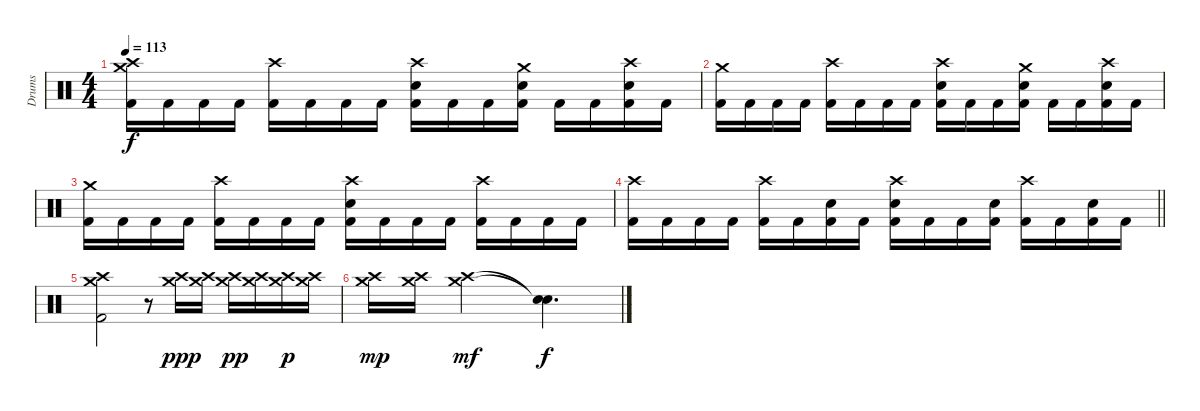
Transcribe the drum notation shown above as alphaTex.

\track ("Drums" "Drums") {instrument percussion}
\staff {score}
\articulation defaults
\ts (4 4)
\tempo 113
\clef neutral
\ks c
("Crash medium (hit)" "Crash high (hit)" "Kick (hit) 2").16{dy f} "Kick (hit) 2".16 "Kick (hit) 2".16 "Kick (hit) 2".16 ("Crash high (hit)" "Kick (hit) 2").16 "Kick (hit) 2".16 "Kick (hit) 2".16 "Kick (hit) 2".16 ("Crash high (hit)" "Electric Snare (hit)" "Kick (hit) 2").16 "Kick (hit) 2".16 "Kick (hit) 2".16 ("Crash medium (hit)" "Electric Snare (hit)" "Kick (hit) 2").16 "Kick (hit) 2".16 "Kick (hit) 2".16 ("Crash high (hit)" "Electric Snare (hit)" "Kick (hit) 2").16 "Kick (hit) 2".16 |
("Crash medium (hit)" "Kick (hit) 2").16 "Kick (hit) 2".16 "Kick (hit) 2".16 "Kick (hit) 2".16 ("Crash high (hit)" "Kick (hit) 2").16 "Kick (hit) 2".16 "Kick (hit) 2".16 "Kick (hit) 2".16 ("Crash high (hit)" "Electric Snare (hit)" "Kick (hit) 2").16 "Kick (hit) 2".16 "Kick (hit) 2".16 ("Crash medium (hit)" "Electric Snare (hit)" "Kick (hit) 2").16 "Kick (hit) 2".16 "Kick (hit) 2".16 ("Crash high (hit)" "Electric Snare (hit)" "Kick (hit) 2").16 "Kick (hit) 2".16 |
("Crash medium (hit)" "Kick (hit) 2").16 "Kick (hit) 2".16 "Kick (hit) 2".16 "Kick (hit) 2".16 ("Crash high (hit)" "Kick (hit) 2").16 "Kick (hit) 2".16 "Kick (hit) 2".16 "Kick (hit) 2".16 ("Crash high (hit)" "Electric Snare (hit)" "Kick (hit) 2").16 "Kick (hit) 2".16 "Kick (hit) 2".16 "Kick (hit) 2".16 ("Crash high (hit)" "Kick (hit) 2").16 "Kick (hit) 2".16 "Kick (hit) 2".16 "Kick (hit) 2".16 |
\barLineRight lightlight
("Crash high (hit)" "Kick (hit) 2").16 "Kick (hit) 2".16 "Kick (hit) 2".16 "Kick (hit) 2".16 ("Crash high (hit)" "Kick (hit) 2").16 "Kick (hit) 2".16 ("Electric Snare (hit)" "Kick (hit) 2").16 "Kick (hit) 2".16 ("Crash high (hit)" "Electric Snare (hit)" "Kick (hit) 2").16 "Kick (hit) 2".16 "Kick (hit) 2".16 ("Electric Snare (hit)" "Kick (hit) 2").16 ("Crash high (hit)" "Kick (hit) 2").16 "Kick (hit) 2".16 ("Electric Snare (hit)" "Kick (hit) 2").16 "Kick (hit) 2".16 |
("Crash high (hit)" "Crash medium (hit)" "Kick (hit) 2").2 r.8 ("Crash high (hit)" "Crash medium (hit)").16{dy ppp} ("Crash high (hit)" "Crash medium (hit)").16 ("Crash high (hit)" "Crash medium (hit)").16{dy pp} ("Crash high (hit)" "Crash medium (hit)").16 ("Crash high (hit)" "Crash medium (hit)").16{dy p} ("Crash high (hit)" "Crash medium (hit)").16 |
("Crash high (hit)" "Crash medium (hit)").16{dy mp} ("Crash high (hit)" "Crash medium (hit)").16 ("Crash high (hit)" "Crash medium (hit)").2{dy mf} ("Snare (hit)"{t} "Snare (hit)"{t}).4{d dy f}
